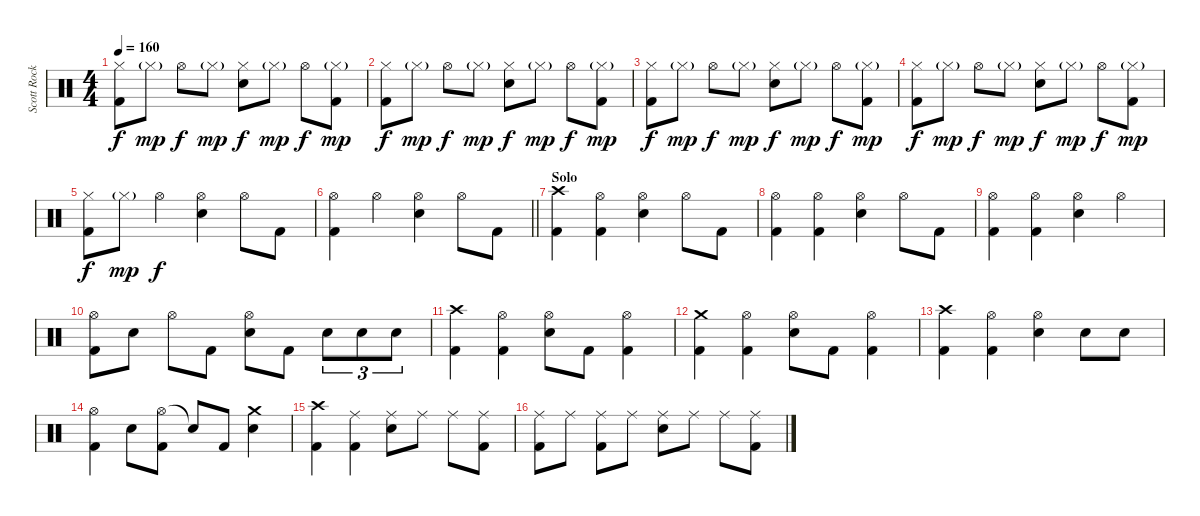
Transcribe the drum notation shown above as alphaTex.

\track ("Scott Rockenfield" "Scott Rock") {instrument percussion}
\staff {score}
\articulation defaults
\ts (4 4)
\tempo 160
\clef neutral
\ks c
("Hi-Hat (closed)" "Kick (hit) 2").8{dy f} "Hi-Hat (closed)"{g}.8{dy mp} "Hi-Hat (open)".8{dy f} "Hi-Hat (closed)"{g}.8{dy mp} ("Hi-Hat (closed)" "Electric Snare (hit)").8{dy f} "Hi-Hat (closed)"{g}.8{dy mp} "Hi-Hat (open)".8{dy f} ("Hi-Hat (closed)"{g} "Kick (hit) 2").8{dy mp} |
("Hi-Hat (closed)" "Kick (hit) 2").8{dy f} "Hi-Hat (closed)"{g}.8{dy mp} "Hi-Hat (open)".8{dy f} "Hi-Hat (closed)"{g}.8{dy mp} ("Hi-Hat (closed)" "Electric Snare (hit)").8{dy f} "Hi-Hat (closed)"{g}.8{dy mp} "Hi-Hat (open)".8{dy f} ("Hi-Hat (closed)"{g} "Kick (hit) 2").8{dy mp} |
("Hi-Hat (closed)" "Kick (hit) 2").8{dy f} "Hi-Hat (closed)"{g}.8{dy mp} "Hi-Hat (open)".8{dy f} "Hi-Hat (closed)"{g}.8{dy mp} ("Hi-Hat (closed)" "Electric Snare (hit)").8{dy f} "Hi-Hat (closed)"{g}.8{dy mp} "Hi-Hat (open)".8{dy f} ("Hi-Hat (closed)"{g} "Kick (hit) 2").8{dy mp} |
("Hi-Hat (closed)" "Kick (hit) 2").8{dy f} "Hi-Hat (closed)"{g}.8{dy mp} "Hi-Hat (open)".8{dy f} "Hi-Hat (closed)"{g}.8{dy mp} ("Hi-Hat (closed)" "Electric Snare (hit)").8{dy f} "Hi-Hat (closed)"{g}.8{dy mp} "Hi-Hat (open)".8{dy f} ("Hi-Hat (closed)"{g} "Kick (hit) 2").8{dy mp} |
("Hi-Hat (closed)" "Kick (hit) 2").8{dy f} "Hi-Hat (closed)"{g}.8{dy mp} "Hi-Hat (open)".4{dy f} ("Hi-Hat (open)" "Electric Snare (hit)").4 "Hi-Hat (open)".8 "Kick (hit) 2".8 |
\barLineRight lightlight
("Hi-Hat (open)" "Kick (hit) 2").4 "Hi-Hat (open)".4 ("Hi-Hat (open)" "Electric Snare (hit)").4 "Hi-Hat (open)".8 "Kick (hit) 2".8 |
\section ("" "Solo")
("Crash high (hit)" "Kick (hit) 2").4 ("Hi-Hat (open)" "Kick (hit) 2").4 ("Hi-Hat (open)" "Electric Snare (hit)").4 "Hi-Hat (open)".8 "Kick (hit) 2".8 |
("Hi-Hat (open)" "Kick (hit) 2").4 ("Hi-Hat (open)" "Kick (hit) 2").4 ("Hi-Hat (open)" "Electric Snare (hit)").4 "Hi-Hat (open)".8 "Kick (hit) 2".8 |
("Hi-Hat (open)" "Kick (hit) 2").4 ("Hi-Hat (open)" "Kick (hit) 2").4 ("Hi-Hat (open)" "Electric Snare (hit)").4 "Hi-Hat (open)".4 |
("Hi-Hat (open)" "Kick (hit) 2").8 "Electric Snare (hit)".8 "Hi-Hat (open)".8 "Kick (hit) 2".8 ("Hi-Hat (open)" "Electric Snare (hit)").8 "Kick (hit) 2".8 "Electric Snare (hit)".8{tu (3 2)} "Electric Snare (hit)".8{tu (3 2)} "Electric Snare (hit)".8{tu (3 2)} |
("Crash high (hit)" "Kick (hit) 2").4 ("Hi-Hat (open)" "Kick (hit) 2").4 ("Hi-Hat (open)" "Electric Snare (hit)").8 "Kick (hit) 2".8 ("Hi-Hat (open)" "Kick (hit) 2").4 |
("Crash medium (hit)" "Kick (hit) 2").4 ("Hi-Hat (open)" "Kick (hit) 2").4 ("Hi-Hat (open)" "Electric Snare (hit)").8 "Kick (hit) 2".8 ("Hi-Hat (open)" "Kick (hit) 2").4 |
("Crash high (hit)" "Kick (hit) 2").4 ("Hi-Hat (open)" "Kick (hit) 2").4 ("Hi-Hat (open)" "Electric Snare (hit)").4 "Electric Snare (hit)".8 "Electric Snare (hit)".8 |
("Hi-Hat (open)" "Kick (hit) 2").4 "Electric Snare (hit)".8 ("Hi-Hat (open)" "Kick (hit) 2").8 "Snare (hit)"{t}.8 "Kick (hit) 2".8 ("Crash medium (hit)" "Electric Snare (hit)").4 |
("Crash high (hit)" "Kick (hit) 2").4 ("Ride (middle)" "Kick (hit) 2").4 ("Ride (middle)" "Electric Snare (hit)").8 "Ride (middle)".8 "Ride (middle)".8 ("Ride (middle)" "Kick (hit) 2").8 |
("Ride (middle)" "Kick (hit) 2").8 "Ride (middle)".8 ("Ride (middle)" "Kick (hit) 2").8 "Ride (middle)".8 ("Ride (middle)" "Electric Snare (hit)").8 "Ride (middle)".8 "Ride (middle)".8 ("Ride (middle)" "Kick (hit) 2").8
